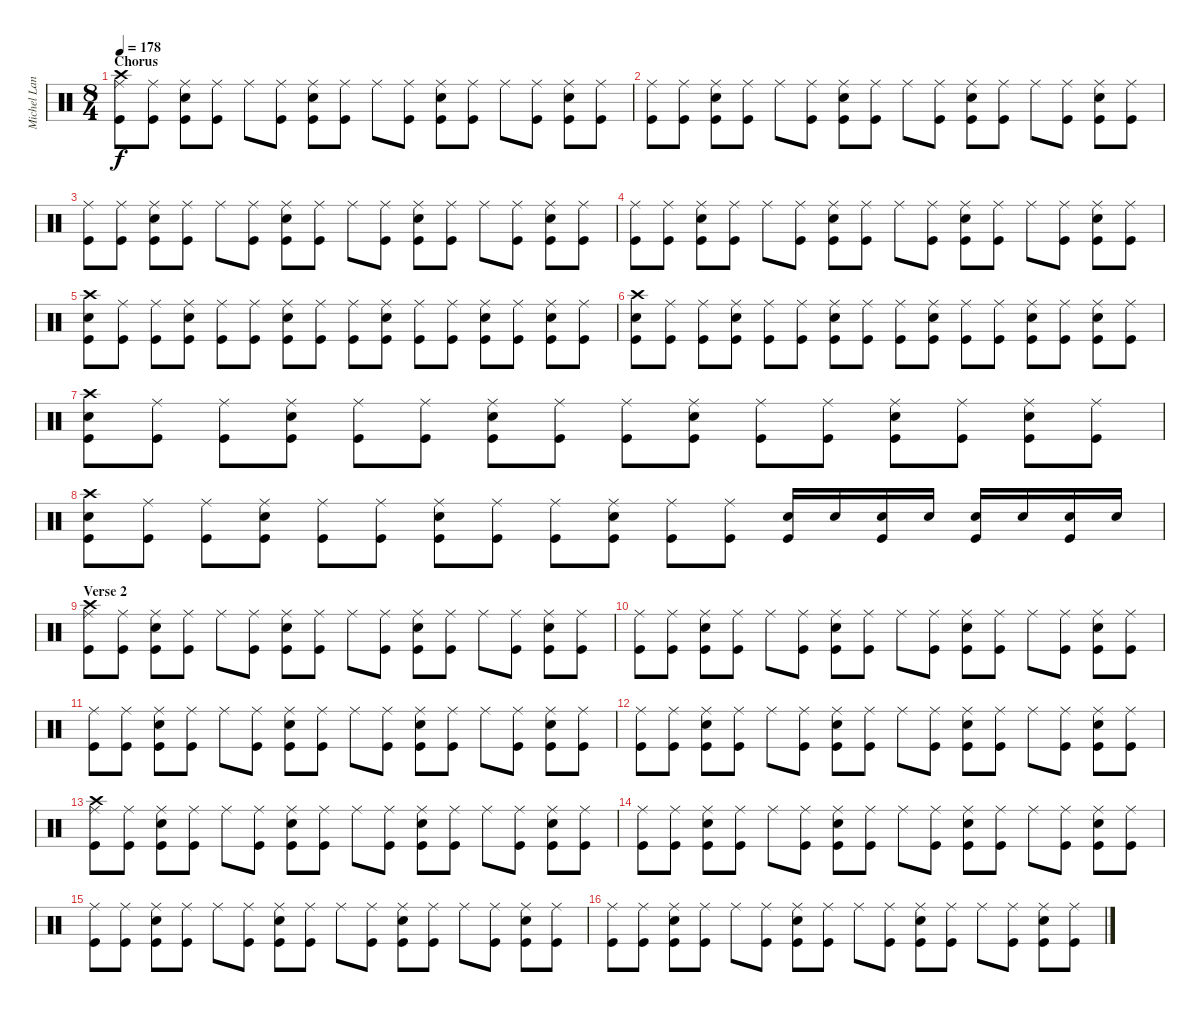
\track ("Michel Langevin [Drums]" "Michel Lan") {instrument percussion}
\staff {score}
\articulation defaults
\ts (8 4)
\section ("" "Chorus")
\tempo 178
\clef neutral
\ks c
("Kick (hit)" "Ride (middle)" "Crash high (hit)").8{dy f} ("Kick (hit)" "Ride (middle)").8 ("Snare (hit) 2" "Kick (hit)" "Ride (middle)").8 ("Kick (hit)" "Ride (middle)").8 "Ride (middle)".8 ("Kick (hit)" "Ride (middle)").8 ("Snare (hit) 2" "Kick (hit)" "Ride (middle)").8 ("Kick (hit)" "Ride (middle)").8 "Ride (middle)".8 ("Kick (hit)" "Ride (middle)").8 ("Snare (hit) 2" "Kick (hit)" "Ride (middle)").8 ("Kick (hit)" "Ride (middle)").8 "Ride (middle)".8 ("Kick (hit)" "Ride (middle)").8 ("Snare (hit) 2" "Kick (hit)" "Ride (middle)").8 ("Kick (hit)" "Ride (middle)").8 |
("Kick (hit)" "Ride (middle)").8 ("Kick (hit)" "Ride (middle)").8 ("Snare (hit) 2" "Kick (hit)" "Ride (middle)").8 ("Kick (hit)" "Ride (middle)").8 "Ride (middle)".8 ("Kick (hit)" "Ride (middle)").8 ("Snare (hit) 2" "Kick (hit)" "Ride (middle)").8 ("Kick (hit)" "Ride (middle)").8 "Ride (middle)".8 ("Kick (hit)" "Ride (middle)").8 ("Snare (hit) 2" "Kick (hit)" "Ride (middle)").8 ("Kick (hit)" "Ride (middle)").8 "Ride (middle)".8 ("Kick (hit)" "Ride (middle)").8 ("Snare (hit) 2" "Kick (hit)" "Ride (middle)").8 ("Kick (hit)" "Ride (middle)").8 |
("Kick (hit)" "Ride (middle)").8 ("Kick (hit)" "Ride (middle)").8 ("Snare (hit) 2" "Kick (hit)" "Ride (middle)").8 ("Kick (hit)" "Ride (middle)").8 "Ride (middle)".8 ("Kick (hit)" "Ride (middle)").8 ("Snare (hit) 2" "Kick (hit)" "Ride (middle)").8 ("Kick (hit)" "Ride (middle)").8 "Ride (middle)".8 ("Kick (hit)" "Ride (middle)").8 ("Snare (hit) 2" "Kick (hit)" "Ride (middle)").8 ("Kick (hit)" "Ride (middle)").8 "Ride (middle)".8 ("Kick (hit)" "Ride (middle)").8 ("Snare (hit) 2" "Kick (hit)" "Ride (middle)").8 ("Kick (hit)" "Ride (middle)").8 |
("Kick (hit)" "Ride (middle)").8 ("Kick (hit)" "Ride (middle)").8 ("Snare (hit) 2" "Kick (hit)" "Ride (middle)").8 ("Kick (hit)" "Ride (middle)").8 "Ride (middle)".8 ("Kick (hit)" "Ride (middle)").8 ("Snare (hit) 2" "Kick (hit)" "Ride (middle)").8 ("Kick (hit)" "Ride (middle)").8 "Ride (middle)".8 ("Kick (hit)" "Ride (middle)").8 ("Snare (hit) 2" "Kick (hit)" "Ride (middle)").8 ("Kick (hit)" "Ride (middle)").8 "Ride (middle)".8 ("Kick (hit)" "Ride (middle)").8 ("Snare (hit) 2" "Kick (hit)" "Ride (middle)").8 ("Kick (hit)" "Ride (middle)").8 |
("Snare (hit) 2" "Kick (hit)" "Crash high (hit)").8 ("Kick (hit)" "Ride (middle)").8 ("Kick (hit)" "Ride (middle)").8 ("Snare (hit) 2" "Kick (hit)" "Ride (middle)").8 ("Kick (hit)" "Ride (middle)").8 ("Kick (hit)" "Ride (middle)").8 ("Snare (hit) 2" "Kick (hit)" "Ride (middle)").8 ("Kick (hit)" "Ride (middle)").8 ("Kick (hit)" "Ride (middle)").8 ("Snare (hit) 2" "Kick (hit)" "Ride (middle)").8 ("Kick (hit)" "Ride (middle)").8 ("Kick (hit)" "Ride (middle)").8 ("Snare (hit) 2" "Kick (hit)" "Ride (middle)").8 ("Kick (hit)" "Ride (middle)").8 ("Snare (hit) 2" "Kick (hit)" "Ride (middle)").8 ("Kick (hit)" "Ride (middle)").8 |
("Snare (hit) 2" "Kick (hit)" "Crash high (hit)").8 ("Kick (hit)" "Ride (middle)").8 ("Kick (hit)" "Ride (middle)").8 ("Snare (hit) 2" "Kick (hit)" "Ride (middle)").8 ("Kick (hit)" "Ride (middle)").8 ("Kick (hit)" "Ride (middle)").8 ("Snare (hit) 2" "Kick (hit)" "Ride (middle)").8 ("Kick (hit)" "Ride (middle)").8 ("Kick (hit)" "Ride (middle)").8 ("Snare (hit) 2" "Kick (hit)" "Ride (middle)").8 ("Kick (hit)" "Ride (middle)").8 ("Kick (hit)" "Ride (middle)").8 ("Snare (hit) 2" "Kick (hit)" "Ride (middle)").8 ("Kick (hit)" "Ride (middle)").8 ("Snare (hit) 2" "Kick (hit)" "Ride (middle)").8 ("Kick (hit)" "Ride (middle)").8 |
("Snare (hit) 2" "Kick (hit)" "Crash high (hit)").8 ("Kick (hit)" "Ride (middle)").8 ("Kick (hit)" "Ride (middle)").8 ("Snare (hit) 2" "Kick (hit)" "Ride (middle)").8 ("Kick (hit)" "Ride (middle)").8 ("Kick (hit)" "Ride (middle)").8 ("Snare (hit) 2" "Kick (hit)" "Ride (middle)").8 ("Kick (hit)" "Ride (middle)").8 ("Kick (hit)" "Ride (middle)").8 ("Snare (hit) 2" "Kick (hit)" "Ride (middle)").8 ("Kick (hit)" "Ride (middle)").8 ("Kick (hit)" "Ride (middle)").8 ("Snare (hit) 2" "Kick (hit)" "Ride (middle)").8 ("Kick (hit)" "Ride (middle)").8 ("Snare (hit) 2" "Kick (hit)" "Ride (middle)").8 ("Kick (hit)" "Ride (middle)").8 |
("Snare (hit) 2" "Kick (hit)" "Crash high (hit)").8 ("Kick (hit)" "Ride (middle)").8 ("Kick (hit)" "Ride (middle)").8 ("Snare (hit) 2" "Kick (hit)" "Ride (middle)").8 ("Kick (hit)" "Ride (middle)").8 ("Kick (hit)" "Ride (middle)").8 ("Snare (hit) 2" "Kick (hit)" "Ride (middle)").8 ("Kick (hit)" "Ride (middle)").8 ("Kick (hit)" "Ride (middle)").8 ("Snare (hit) 2" "Kick (hit)" "Ride (middle)").8 ("Kick (hit)" "Ride (middle)").8 ("Kick (hit)" "Ride (middle)").8 ("Snare (hit) 2" "Kick (hit)").16 "Snare (hit) 2".16 ("Snare (hit) 2" "Kick (hit)").16 "Snare (hit) 2".16 ("Snare (hit) 2" "Kick (hit)").16 "Snare (hit) 2".16 ("Snare (hit) 2" "Kick (hit)").16 "Snare (hit) 2".16 |
\section ("" "Verse 2")
("Kick (hit)" "Ride (middle)" "Crash high (hit)").8 ("Kick (hit)" "Ride (middle)").8 ("Snare (hit) 2" "Kick (hit)" "Ride (middle)").8 ("Kick (hit)" "Ride (middle)").8 "Ride (middle)".8 ("Kick (hit)" "Ride (middle)").8 ("Snare (hit) 2" "Kick (hit)" "Ride (middle)").8 ("Kick (hit)" "Ride (middle)").8 "Ride (middle)".8 ("Kick (hit)" "Ride (middle)").8 ("Snare (hit) 2" "Kick (hit)" "Ride (middle)").8 ("Kick (hit)" "Ride (middle)").8 "Ride (middle)".8 ("Kick (hit)" "Ride (middle)").8 ("Snare (hit) 2" "Kick (hit)" "Ride (middle)").8 ("Kick (hit)" "Ride (middle)").8 |
("Kick (hit)" "Ride (middle)").8 ("Kick (hit)" "Ride (middle)").8 ("Snare (hit) 2" "Kick (hit)" "Ride (middle)").8 ("Kick (hit)" "Ride (middle)").8 "Ride (middle)".8 ("Kick (hit)" "Ride (middle)").8 ("Snare (hit) 2" "Kick (hit)" "Ride (middle)").8 ("Kick (hit)" "Ride (middle)").8 "Ride (middle)".8 ("Kick (hit)" "Ride (middle)").8 ("Snare (hit) 2" "Kick (hit)" "Ride (middle)").8 ("Kick (hit)" "Ride (middle)").8 "Ride (middle)".8 ("Kick (hit)" "Ride (middle)").8 ("Snare (hit) 2" "Kick (hit)" "Ride (middle)").8 ("Kick (hit)" "Ride (middle)").8 |
("Kick (hit)" "Ride (middle)").8 ("Kick (hit)" "Ride (middle)").8 ("Snare (hit) 2" "Kick (hit)" "Ride (middle)").8 ("Kick (hit)" "Ride (middle)").8 "Ride (middle)".8 ("Kick (hit)" "Ride (middle)").8 ("Snare (hit) 2" "Kick (hit)" "Ride (middle)").8 ("Kick (hit)" "Ride (middle)").8 "Ride (middle)".8 ("Kick (hit)" "Ride (middle)").8 ("Snare (hit) 2" "Kick (hit)" "Ride (middle)").8 ("Kick (hit)" "Ride (middle)").8 "Ride (middle)".8 ("Kick (hit)" "Ride (middle)").8 ("Snare (hit) 2" "Kick (hit)" "Ride (middle)").8 ("Kick (hit)" "Ride (middle)").8 |
("Kick (hit)" "Ride (middle)").8 ("Kick (hit)" "Ride (middle)").8 ("Snare (hit) 2" "Kick (hit)" "Ride (middle)").8 ("Kick (hit)" "Ride (middle)").8 "Ride (middle)".8 ("Kick (hit)" "Ride (middle)").8 ("Snare (hit) 2" "Kick (hit)" "Ride (middle)").8 ("Kick (hit)" "Ride (middle)").8 "Ride (middle)".8 ("Kick (hit)" "Ride (middle)").8 ("Snare (hit) 2" "Kick (hit)" "Ride (middle)").8 ("Kick (hit)" "Ride (middle)").8 "Ride (middle)".8 ("Kick (hit)" "Ride (middle)").8 ("Snare (hit) 2" "Kick (hit)" "Ride (middle)").8 ("Kick (hit)" "Ride (middle)").8 |
("Kick (hit)" "Ride (middle)" "Crash high (hit)").8 ("Kick (hit)" "Ride (middle)").8 ("Snare (hit) 2" "Kick (hit)" "Ride (middle)").8 ("Kick (hit)" "Ride (middle)").8 "Ride (middle)".8 ("Kick (hit)" "Ride (middle)").8 ("Snare (hit) 2" "Kick (hit)" "Ride (middle)").8 ("Kick (hit)" "Ride (middle)").8 "Ride (middle)".8 ("Kick (hit)" "Ride (middle)").8 ("Snare (hit) 2" "Kick (hit)" "Ride (middle)").8 ("Kick (hit)" "Ride (middle)").8 "Ride (middle)".8 ("Kick (hit)" "Ride (middle)").8 ("Snare (hit) 2" "Kick (hit)" "Ride (middle)").8 ("Kick (hit)" "Ride (middle)").8 |
("Kick (hit)" "Ride (middle)").8 ("Kick (hit)" "Ride (middle)").8 ("Snare (hit) 2" "Kick (hit)" "Ride (middle)").8 ("Kick (hit)" "Ride (middle)").8 "Ride (middle)".8 ("Kick (hit)" "Ride (middle)").8 ("Snare (hit) 2" "Kick (hit)" "Ride (middle)").8 ("Kick (hit)" "Ride (middle)").8 "Ride (middle)".8 ("Kick (hit)" "Ride (middle)").8 ("Snare (hit) 2" "Kick (hit)" "Ride (middle)").8 ("Kick (hit)" "Ride (middle)").8 "Ride (middle)".8 ("Kick (hit)" "Ride (middle)").8 ("Snare (hit) 2" "Kick (hit)" "Ride (middle)").8 ("Kick (hit)" "Ride (middle)").8 |
("Kick (hit)" "Ride (middle)").8 ("Kick (hit)" "Ride (middle)").8 ("Snare (hit) 2" "Kick (hit)" "Ride (middle)").8 ("Kick (hit)" "Ride (middle)").8 "Ride (middle)".8 ("Kick (hit)" "Ride (middle)").8 ("Snare (hit) 2" "Kick (hit)" "Ride (middle)").8 ("Kick (hit)" "Ride (middle)").8 "Ride (middle)".8 ("Kick (hit)" "Ride (middle)").8 ("Snare (hit) 2" "Kick (hit)" "Ride (middle)").8 ("Kick (hit)" "Ride (middle)").8 "Ride (middle)".8 ("Kick (hit)" "Ride (middle)").8 ("Snare (hit) 2" "Kick (hit)" "Ride (middle)").8 ("Kick (hit)" "Ride (middle)").8 |
("Kick (hit)" "Ride (middle)").8 ("Kick (hit)" "Ride (middle)").8 ("Snare (hit) 2" "Kick (hit)" "Ride (middle)").8 ("Kick (hit)" "Ride (middle)").8 "Ride (middle)".8 ("Kick (hit)" "Ride (middle)").8 ("Snare (hit) 2" "Kick (hit)" "Ride (middle)").8 ("Kick (hit)" "Ride (middle)").8 "Ride (middle)".8 ("Kick (hit)" "Ride (middle)").8 ("Snare (hit) 2" "Kick (hit)" "Ride (middle)").8 ("Kick (hit)" "Ride (middle)").8 "Ride (middle)".8 ("Kick (hit)" "Ride (middle)").8 ("Snare (hit) 2" "Kick (hit)" "Ride (middle)").8 ("Kick (hit)" "Ride (middle)").8
